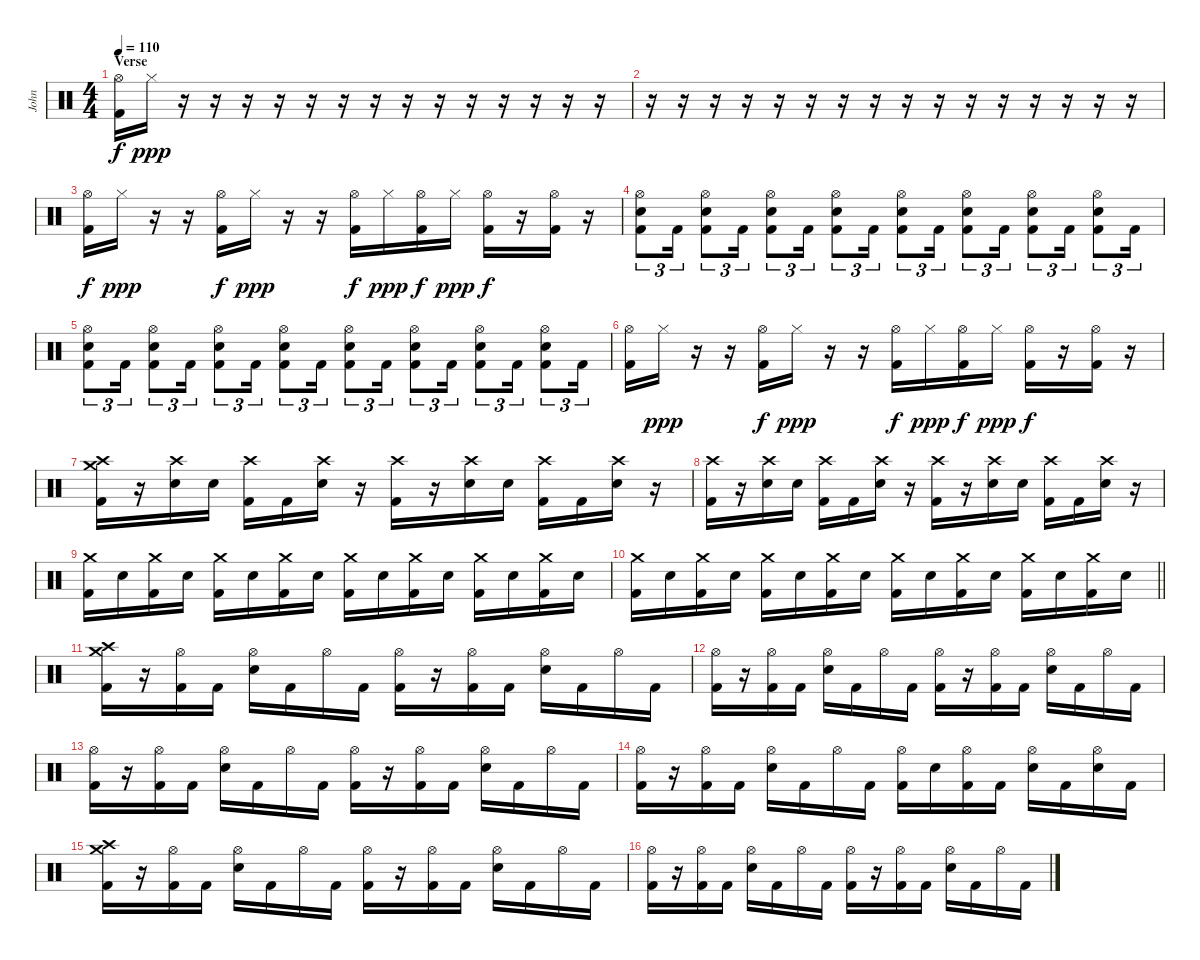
\track ("John" "John") {instrument percussion}
\staff {score}
\articulation defaults
\ts (4 4)
\section ("" "Verse")
\tempo 110
\clef neutral
\ks c
("Hi-Hat (open)" "Kick (hit) 2").16{dy f} "Hi-Hat (closed)".16{dy ppp} r.16 r.16 r.16 r.16 r.16 r.16 r.16 r.16 r.16 r.16 r.16 r.16 r.16 r.16 |
r.16 r.16 r.16 r.16 r.16 r.16 r.16 r.16 r.16 r.16 r.16 r.16 r.16 r.16 r.16 r.16 |
("Hi-Hat (open)" "Kick (hit) 2").16{dy f} "Hi-Hat (closed)".16{dy ppp} r.16 r.16 ("Hi-Hat (open)" "Kick (hit) 2").16{dy f} "Hi-Hat (closed)".16{dy ppp} r.16 r.16 ("Hi-Hat (open)" "Kick (hit) 2").16{dy f} "Hi-Hat (closed)".16{dy ppp} ("Hi-Hat (open)" "Kick (hit) 2").16{dy f} "Hi-Hat (closed)".16{dy ppp} ("Hi-Hat (open)" "Kick (hit) 2").16{dy f} r.16 ("Hi-Hat (open)" "Kick (hit) 2").16 r.16 |
("Hi-Hat (open)" "Electric Snare (hit)" "Kick (hit) 2").8{tu (3 2)} "Kick (hit) 2".16{tu (3 2)} ("Hi-Hat (open)" "Electric Snare (hit)" "Kick (hit) 2").8{tu (3 2)} "Kick (hit) 2".16{tu (3 2)} ("Hi-Hat (open)" "Electric Snare (hit)" "Kick (hit) 2").8{tu (3 2)} "Kick (hit) 2".16{tu (3 2)} ("Hi-Hat (open)" "Electric Snare (hit)" "Kick (hit) 2").8{tu (3 2)} "Kick (hit) 2".16{tu (3 2)} ("Hi-Hat (open)" "Electric Snare (hit)" "Kick (hit) 2").8{tu (3 2)} "Kick (hit) 2".16{tu (3 2)} ("Hi-Hat (open)" "Electric Snare (hit)" "Kick (hit) 2").8{tu (3 2)} "Kick (hit) 2".16{tu (3 2)} ("Hi-Hat (open)" "Electric Snare (hit)" "Kick (hit) 2").8{tu (3 2)} "Kick (hit) 2".16{tu (3 2)} ("Hi-Hat (open)" "Electric Snare (hit)" "Kick (hit) 2").8{tu (3 2)} "Kick (hit) 2".16{tu (3 2)} |
("Hi-Hat (open)" "Electric Snare (hit)" "Kick (hit) 2").8{tu (3 2)} "Kick (hit) 2".16{tu (3 2)} ("Hi-Hat (open)" "Electric Snare (hit)" "Kick (hit) 2").8{tu (3 2)} "Kick (hit) 2".16{tu (3 2)} ("Hi-Hat (open)" "Electric Snare (hit)" "Kick (hit) 2").8{tu (3 2)} "Kick (hit) 2".16{tu (3 2)} ("Hi-Hat (open)" "Electric Snare (hit)" "Kick (hit) 2").8{tu (3 2)} "Kick (hit) 2".16{tu (3 2)} ("Hi-Hat (open)" "Electric Snare (hit)" "Kick (hit) 2").8{tu (3 2)} "Kick (hit) 2".16{tu (3 2)} ("Hi-Hat (open)" "Electric Snare (hit)" "Kick (hit) 2").8{tu (3 2)} "Kick (hit) 2".16{tu (3 2)} ("Hi-Hat (open)" "Electric Snare (hit)" "Kick (hit) 2").8{tu (3 2)} "Kick (hit) 2".16{tu (3 2)} ("Hi-Hat (open)" "Electric Snare (hit)" "Kick (hit) 2").8{tu (3 2)} "Kick (hit) 2".16{tu (3 2)} |
("Hi-Hat (open)" "Kick (hit) 2").16 "Hi-Hat (closed)".16{dy ppp} r.16 r.16 ("Hi-Hat (open)" "Kick (hit) 2").16{dy f} "Hi-Hat (closed)".16{dy ppp} r.16 r.16 ("Hi-Hat (open)" "Kick (hit) 2").16{dy f} "Hi-Hat (closed)".16{dy ppp} ("Hi-Hat (open)" "Kick (hit) 2").16{dy f} "Hi-Hat (closed)".16{dy ppp} ("Hi-Hat (open)" "Kick (hit) 2").16{dy f} r.16 ("Hi-Hat (open)" "Kick (hit) 2").16 r.16 |
("Crash medium (hit)" "Crash high (hit)" "Kick (hit) 2").16 r.16 ("Crash high (hit)" "Electric Snare (hit)").16 "Electric Snare (hit)".16 ("Crash high (hit)" "Kick (hit) 2").16 "Kick (hit) 2".16 ("Crash high (hit)" "Electric Snare (hit)").16 r.16 ("Crash high (hit)" "Kick (hit) 2").16 r.16 ("Crash high (hit)" "Electric Snare (hit)").16 "Electric Snare (hit)".16 ("Crash high (hit)" "Kick (hit) 2").16 "Kick (hit) 2".16 ("Crash high (hit)" "Electric Snare (hit)").16 r.16 |
("Crash high (hit)" "Kick (hit) 2").16 r.16 ("Crash high (hit)" "Electric Snare (hit)").16 "Electric Snare (hit)".16 ("Crash high (hit)" "Kick (hit) 2").16 "Kick (hit) 2".16 ("Crash high (hit)" "Electric Snare (hit)").16 r.16 ("Crash high (hit)" "Kick (hit) 2").16 r.16 ("Crash high (hit)" "Electric Snare (hit)").16 "Electric Snare (hit)".16 ("Crash high (hit)" "Kick (hit) 2").16 "Kick (hit) 2".16 ("Crash high (hit)" "Electric Snare (hit)").16 r.16 |
("Crash medium (hit)" "Kick (hit) 2").16 "Electric Snare (hit)".16 ("Crash medium (hit)" "Kick (hit) 2").16 "Electric Snare (hit)".16 ("Crash medium (hit)" "Kick (hit) 2").16 "Electric Snare (hit)".16 ("Crash medium (hit)" "Kick (hit) 2").16 "Electric Snare (hit)".16 ("Crash medium (hit)" "Kick (hit) 2").16 "Electric Snare (hit)".16 ("Crash medium (hit)" "Kick (hit) 2").16 "Electric Snare (hit)".16 ("Crash medium (hit)" "Kick (hit) 2").16 "Electric Snare (hit)".16 ("Crash medium (hit)" "Kick (hit) 2").16 "Electric Snare (hit)".16 |
\barLineRight lightlight
("Crash medium (hit)" "Kick (hit) 2").16 "Electric Snare (hit)".16 ("Crash medium (hit)" "Kick (hit) 2").16 "Electric Snare (hit)".16 ("Crash medium (hit)" "Kick (hit) 2").16 "Electric Snare (hit)".16 ("Crash medium (hit)" "Kick (hit) 2").16 "Electric Snare (hit)".16 ("Crash medium (hit)" "Kick (hit) 2").16 "Electric Snare (hit)".16 ("Crash medium (hit)" "Kick (hit) 2").16 "Electric Snare (hit)".16 ("Crash medium (hit)" "Kick (hit) 2").16 "Electric Snare (hit)".16 ("Crash medium (hit)" "Kick (hit) 2").16 "Electric Snare (hit)".16 |
("Crash medium (hit)" "Crash high (hit)" "Kick (hit) 2").16 r.16 ("Hi-Hat (open)" "Kick (hit) 2").16 "Kick (hit) 2".16 ("Hi-Hat (open)" "Electric Snare (hit)").16 "Kick (hit) 2".16 "Hi-Hat (open)".16 "Kick (hit) 2".16 ("Hi-Hat (open)" "Kick (hit) 2").16 r.16 ("Hi-Hat (open)" "Kick (hit) 2").16 "Kick (hit) 2".16 ("Hi-Hat (open)" "Electric Snare (hit)").16 "Kick (hit) 2".16 "Hi-Hat (open)".16 "Kick (hit) 2".16 |
("Hi-Hat (open)" "Kick (hit) 2").16 r.16 ("Hi-Hat (open)" "Kick (hit) 2").16 "Kick (hit) 2".16 ("Hi-Hat (open)" "Electric Snare (hit)").16 "Kick (hit) 2".16 "Hi-Hat (open)".16 "Kick (hit) 2".16 ("Hi-Hat (open)" "Kick (hit) 2").16 r.16 ("Hi-Hat (open)" "Kick (hit) 2").16 "Kick (hit) 2".16 ("Hi-Hat (open)" "Electric Snare (hit)").16 "Kick (hit) 2".16 "Hi-Hat (open)".16 "Kick (hit) 2".16 |
("Hi-Hat (open)" "Kick (hit) 2").16 r.16 ("Hi-Hat (open)" "Kick (hit) 2").16 "Kick (hit) 2".16 ("Hi-Hat (open)" "Electric Snare (hit)").16 "Kick (hit) 2".16 "Hi-Hat (open)".16 "Kick (hit) 2".16 ("Hi-Hat (open)" "Kick (hit) 2").16 r.16 ("Hi-Hat (open)" "Kick (hit) 2").16 "Kick (hit) 2".16 ("Hi-Hat (open)" "Electric Snare (hit)").16 "Kick (hit) 2".16 "Hi-Hat (open)".16 "Kick (hit) 2".16 |
("Hi-Hat (open)" "Kick (hit) 2").16 r.16 ("Hi-Hat (open)" "Kick (hit) 2").16 "Kick (hit) 2".16 ("Hi-Hat (open)" "Electric Snare (hit)").16 "Kick (hit) 2".16 "Hi-Hat (open)".16 "Kick (hit) 2".16 ("Hi-Hat (open)" "Kick (hit) 2").16 "Electric Snare (hit)".16 ("Hi-Hat (open)" "Kick (hit) 2").16 "Kick (hit) 2".16 ("Hi-Hat (open)" "Electric Snare (hit)").16 "Kick (hit) 2".16 ("Hi-Hat (open)" "Electric Snare (hit)").16 "Kick (hit) 2".16 |
("Crash medium (hit)" "Crash high (hit)" "Kick (hit) 2").16 r.16 ("Hi-Hat (open)" "Kick (hit) 2").16 "Kick (hit) 2".16 ("Hi-Hat (open)" "Electric Snare (hit)").16 "Kick (hit) 2".16 "Hi-Hat (open)".16 "Kick (hit) 2".16 ("Hi-Hat (open)" "Kick (hit) 2").16 r.16 ("Hi-Hat (open)" "Kick (hit) 2").16 "Kick (hit) 2".16 ("Hi-Hat (open)" "Electric Snare (hit)").16 "Kick (hit) 2".16 "Hi-Hat (open)".16 "Kick (hit) 2".16 |
("Hi-Hat (open)" "Kick (hit) 2").16 r.16 ("Hi-Hat (open)" "Kick (hit) 2").16 "Kick (hit) 2".16 ("Hi-Hat (open)" "Electric Snare (hit)").16 "Kick (hit) 2".16 "Hi-Hat (open)".16 "Kick (hit) 2".16 ("Hi-Hat (open)" "Kick (hit) 2").16 r.16 ("Hi-Hat (open)" "Kick (hit) 2").16 "Kick (hit) 2".16 ("Hi-Hat (open)" "Electric Snare (hit)").16 "Kick (hit) 2".16 "Hi-Hat (open)".16 "Kick (hit) 2".16
